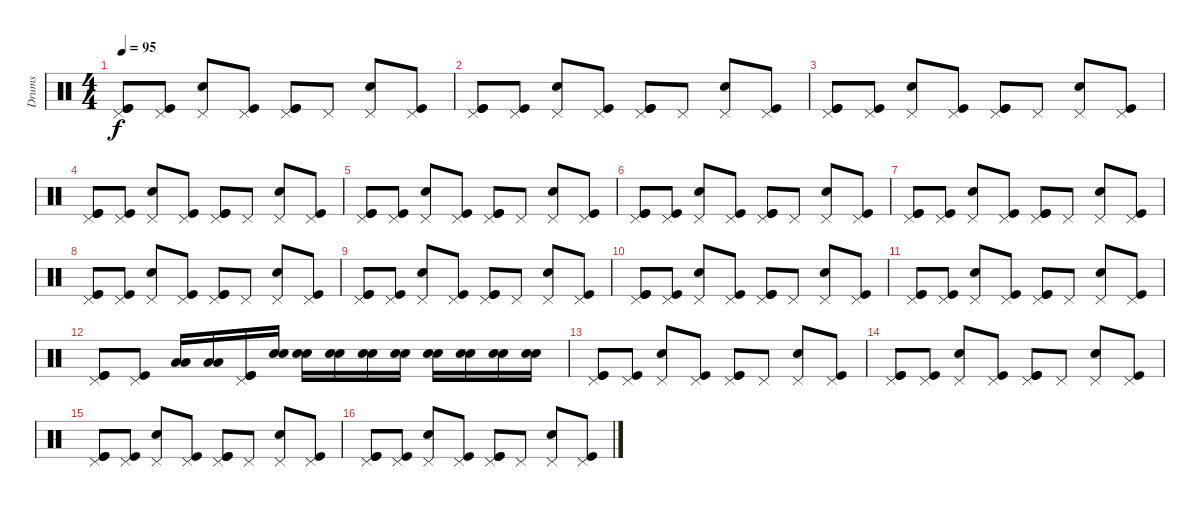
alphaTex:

\track ("Drums" "Drums") {instrument percussion}
\staff {score}
\articulation defaults
\ts (4 4)
\tempo 95
\clef neutral
\ks c
("Pedal Hi-Hat (hit)" "Kick (hit)" "Kick (hit)").8{dy f} ("Pedal Hi-Hat (hit)" "Kick (hit)").8 ("Pedal Hi-Hat (hit)" "Snare (hit) 2").8 ("Pedal Hi-Hat (hit)" "Kick (hit)").8 ("Pedal Hi-Hat (hit)" "Kick (hit)" "Kick (hit)").8 "Pedal Hi-Hat (hit)".8 ("Pedal Hi-Hat (hit)" "Snare (hit) 2").8 ("Pedal Hi-Hat (hit)" "Kick (hit)").8 |
("Pedal Hi-Hat (hit)" "Kick (hit)" "Kick (hit)").8 ("Pedal Hi-Hat (hit)" "Kick (hit)").8 ("Pedal Hi-Hat (hit)" "Snare (hit) 2").8 ("Pedal Hi-Hat (hit)" "Kick (hit)").8 ("Pedal Hi-Hat (hit)" "Kick (hit)" "Kick (hit)").8 "Pedal Hi-Hat (hit)".8 ("Pedal Hi-Hat (hit)" "Snare (hit) 2").8 ("Pedal Hi-Hat (hit)" "Kick (hit)").8 |
("Pedal Hi-Hat (hit)" "Kick (hit)" "Kick (hit)").8 ("Pedal Hi-Hat (hit)" "Kick (hit)").8 ("Pedal Hi-Hat (hit)" "Snare (hit) 2").8 ("Pedal Hi-Hat (hit)" "Kick (hit)").8 ("Pedal Hi-Hat (hit)" "Kick (hit)" "Kick (hit)").8 "Pedal Hi-Hat (hit)".8 ("Pedal Hi-Hat (hit)" "Snare (hit) 2").8 ("Pedal Hi-Hat (hit)" "Kick (hit)").8 |
("Pedal Hi-Hat (hit)" "Kick (hit)" "Kick (hit)").8 ("Pedal Hi-Hat (hit)" "Kick (hit)").8 ("Pedal Hi-Hat (hit)" "Snare (hit) 2").8 ("Pedal Hi-Hat (hit)" "Kick (hit)").8 ("Pedal Hi-Hat (hit)" "Kick (hit)" "Kick (hit)").8 "Pedal Hi-Hat (hit)".8 ("Pedal Hi-Hat (hit)" "Snare (hit) 2").8 ("Pedal Hi-Hat (hit)" "Kick (hit)").8 |
("Pedal Hi-Hat (hit)" "Kick (hit)" "Kick (hit)").8 ("Pedal Hi-Hat (hit)" "Kick (hit)").8 ("Pedal Hi-Hat (hit)" "Snare (hit) 2").8 ("Pedal Hi-Hat (hit)" "Kick (hit)").8 ("Pedal Hi-Hat (hit)" "Kick (hit)" "Kick (hit)").8 "Pedal Hi-Hat (hit)".8 ("Pedal Hi-Hat (hit)" "Snare (hit) 2").8 ("Pedal Hi-Hat (hit)" "Kick (hit)").8 |
("Pedal Hi-Hat (hit)" "Kick (hit)" "Kick (hit)").8 ("Pedal Hi-Hat (hit)" "Kick (hit)").8 ("Pedal Hi-Hat (hit)" "Snare (hit) 2").8 ("Pedal Hi-Hat (hit)" "Kick (hit)").8 ("Pedal Hi-Hat (hit)" "Kick (hit)" "Kick (hit)").8 "Pedal Hi-Hat (hit)".8 ("Pedal Hi-Hat (hit)" "Snare (hit) 2").8 ("Pedal Hi-Hat (hit)" "Kick (hit)").8 |
("Pedal Hi-Hat (hit)" "Kick (hit)" "Kick (hit)").8 ("Pedal Hi-Hat (hit)" "Kick (hit)").8 ("Pedal Hi-Hat (hit)" "Snare (hit) 2").8 ("Pedal Hi-Hat (hit)" "Kick (hit)").8 ("Pedal Hi-Hat (hit)" "Kick (hit)" "Kick (hit)").8 "Pedal Hi-Hat (hit)".8 ("Pedal Hi-Hat (hit)" "Snare (hit) 2").8 ("Pedal Hi-Hat (hit)" "Kick (hit)").8 |
("Pedal Hi-Hat (hit)" "Kick (hit)" "Kick (hit)").8 ("Pedal Hi-Hat (hit)" "Kick (hit)").8 ("Pedal Hi-Hat (hit)" "Snare (hit) 2").8 ("Pedal Hi-Hat (hit)" "Kick (hit)").8 ("Pedal Hi-Hat (hit)" "Kick (hit)" "Kick (hit)").8 "Pedal Hi-Hat (hit)".8 ("Pedal Hi-Hat (hit)" "Snare (hit) 2").8 ("Pedal Hi-Hat (hit)" "Kick (hit)").8 |
("Pedal Hi-Hat (hit)" "Kick (hit)" "Kick (hit)").8 ("Pedal Hi-Hat (hit)" "Kick (hit)").8 ("Pedal Hi-Hat (hit)" "Snare (hit) 2").8 ("Pedal Hi-Hat (hit)" "Kick (hit)").8 ("Pedal Hi-Hat (hit)" "Kick (hit)" "Kick (hit)").8 "Pedal Hi-Hat (hit)".8 ("Pedal Hi-Hat (hit)" "Snare (hit) 2").8 ("Pedal Hi-Hat (hit)" "Kick (hit)").8 |
("Pedal Hi-Hat (hit)" "Kick (hit)" "Kick (hit)").8 ("Pedal Hi-Hat (hit)" "Kick (hit)").8 ("Pedal Hi-Hat (hit)" "Snare (hit) 2").8 ("Pedal Hi-Hat (hit)" "Kick (hit)").8 ("Pedal Hi-Hat (hit)" "Kick (hit)" "Kick (hit)").8 "Pedal Hi-Hat (hit)".8 ("Pedal Hi-Hat (hit)" "Snare (hit) 2").8 ("Pedal Hi-Hat (hit)" "Kick (hit)").8 |
("Pedal Hi-Hat (hit)" "Kick (hit)" "Kick (hit)").8 ("Pedal Hi-Hat (hit)" "Kick (hit)").8 ("Pedal Hi-Hat (hit)" "Snare (hit) 2").8 ("Pedal Hi-Hat (hit)" "Kick (hit)").8 ("Pedal Hi-Hat (hit)" "Kick (hit)" "Kick (hit)").8 "Pedal Hi-Hat (hit)".8 ("Pedal Hi-Hat (hit)" "Snare (hit) 2").8 ("Pedal Hi-Hat (hit)" "Kick (hit)").8 |
("Pedal Hi-Hat (hit)" "Kick (hit)" "Kick (hit)").8 ("Pedal Hi-Hat (hit)" "Kick (hit)").8 ("Low Tom (hit)" "Low Tom (hit)").16 ("Low Tom (hit)" "Low Tom (hit)").16 ("Pedal Hi-Hat (hit)" "Kick (hit)" "Kick (hit)").16 ("Snare (hit) 2" "Snare (hit) 2").16 ("Snare (hit) 2" "Snare (hit) 2").16 ("Snare (hit) 2" "Snare (hit) 2").16 ("Snare (hit) 2" "Snare (hit) 2").16 ("Snare (hit) 2" "Snare (hit) 2").16 ("Snare (hit) 2" "Snare (hit) 2").16 ("Snare (hit) 2" "Snare (hit) 2").16 ("Snare (hit) 2" "Snare (hit) 2").16 ("Snare (hit) 2" "Snare (hit) 2").16 |
("Pedal Hi-Hat (hit)" "Kick (hit)" "Kick (hit)").8 ("Pedal Hi-Hat (hit)" "Kick (hit)").8 ("Pedal Hi-Hat (hit)" "Snare (hit) 2").8 ("Pedal Hi-Hat (hit)" "Kick (hit)").8 ("Pedal Hi-Hat (hit)" "Kick (hit)" "Kick (hit)").8 "Pedal Hi-Hat (hit)".8 ("Pedal Hi-Hat (hit)" "Snare (hit) 2").8 ("Pedal Hi-Hat (hit)" "Kick (hit)").8 |
("Pedal Hi-Hat (hit)" "Kick (hit)" "Kick (hit)").8 ("Pedal Hi-Hat (hit)" "Kick (hit)").8 ("Pedal Hi-Hat (hit)" "Snare (hit) 2").8 ("Pedal Hi-Hat (hit)" "Kick (hit)").8 ("Pedal Hi-Hat (hit)" "Kick (hit)" "Kick (hit)").8 "Pedal Hi-Hat (hit)".8 ("Pedal Hi-Hat (hit)" "Snare (hit) 2").8 ("Pedal Hi-Hat (hit)" "Kick (hit)").8 |
("Pedal Hi-Hat (hit)" "Kick (hit)" "Kick (hit)").8 ("Pedal Hi-Hat (hit)" "Kick (hit)").8 ("Pedal Hi-Hat (hit)" "Snare (hit) 2").8 ("Pedal Hi-Hat (hit)" "Kick (hit)").8 ("Pedal Hi-Hat (hit)" "Kick (hit)" "Kick (hit)").8 "Pedal Hi-Hat (hit)".8 ("Pedal Hi-Hat (hit)" "Snare (hit) 2").8 ("Pedal Hi-Hat (hit)" "Kick (hit)").8 |
("Pedal Hi-Hat (hit)" "Kick (hit)" "Kick (hit)").8 ("Pedal Hi-Hat (hit)" "Kick (hit)").8 ("Pedal Hi-Hat (hit)" "Snare (hit) 2").8 ("Pedal Hi-Hat (hit)" "Kick (hit)").8 ("Pedal Hi-Hat (hit)" "Kick (hit)" "Kick (hit)").8 "Pedal Hi-Hat (hit)".8 ("Pedal Hi-Hat (hit)" "Snare (hit) 2").8 ("Pedal Hi-Hat (hit)" "Kick (hit)").8
